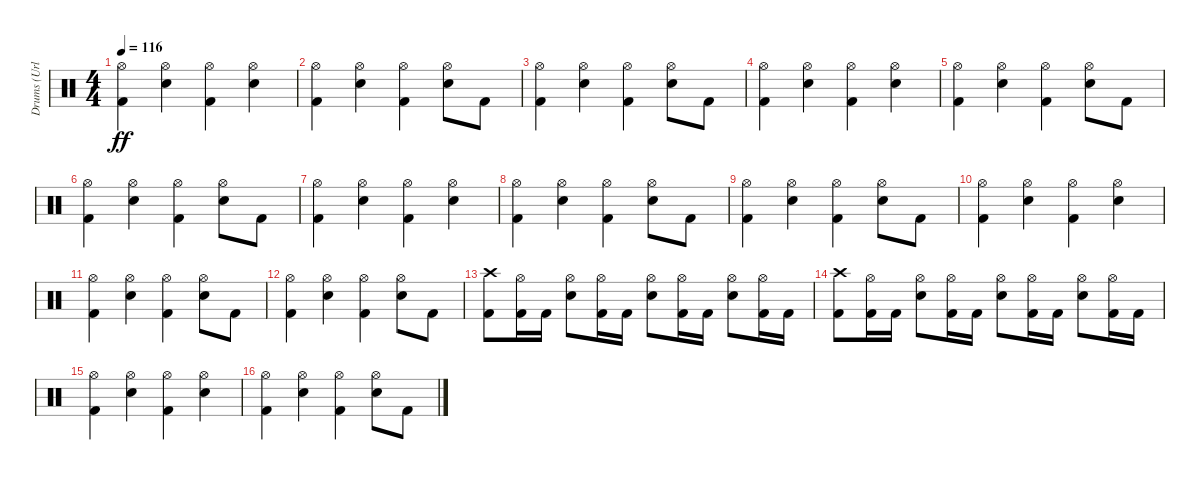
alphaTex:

\track ("Drums (Urlich)" "Drums (Url") {instrument percussion}
\staff {score}
\articulation defaults
\ts (4 4)
\tempo 116
\clef neutral
\ks c
("Kick (hit) 2" "Hi-Hat (open)").4{dy ff} ("Snare (hit) 2" "Hi-Hat (open)").4 ("Kick (hit) 2" "Hi-Hat (open)").4 ("Snare (hit) 2" "Hi-Hat (open)").4 |
("Kick (hit) 2" "Hi-Hat (open)").4 ("Snare (hit) 2" "Hi-Hat (open)").4 ("Kick (hit) 2" "Hi-Hat (open)").4 ("Snare (hit) 2" "Hi-Hat (open)").8 "Kick (hit) 2".8 |
("Kick (hit) 2" "Hi-Hat (open)").4 ("Snare (hit) 2" "Hi-Hat (open)").4 ("Kick (hit) 2" "Hi-Hat (open)").4 ("Snare (hit) 2" "Hi-Hat (open)").8 "Kick (hit) 2".8 |
("Kick (hit) 2" "Hi-Hat (open)").4 ("Snare (hit) 2" "Hi-Hat (open)").4 ("Kick (hit) 2" "Hi-Hat (open)").4 ("Snare (hit) 2" "Hi-Hat (open)").4 |
("Kick (hit) 2" "Hi-Hat (open)").4 ("Snare (hit) 2" "Hi-Hat (open)").4 ("Kick (hit) 2" "Hi-Hat (open)").4 ("Snare (hit) 2" "Hi-Hat (open)").8 "Kick (hit) 2".8 |
("Kick (hit) 2" "Hi-Hat (open)").4 ("Snare (hit) 2" "Hi-Hat (open)").4 ("Kick (hit) 2" "Hi-Hat (open)").4 ("Snare (hit) 2" "Hi-Hat (open)").8 "Kick (hit) 2".8 |
("Kick (hit) 2" "Hi-Hat (open)").4 ("Snare (hit) 2" "Hi-Hat (open)").4 ("Kick (hit) 2" "Hi-Hat (open)").4 ("Snare (hit) 2" "Hi-Hat (open)").4 |
("Kick (hit) 2" "Hi-Hat (open)").4 ("Snare (hit) 2" "Hi-Hat (open)").4 ("Kick (hit) 2" "Hi-Hat (open)").4 ("Snare (hit) 2" "Hi-Hat (open)").8 "Kick (hit) 2".8 |
("Kick (hit) 2" "Hi-Hat (open)").4 ("Snare (hit) 2" "Hi-Hat (open)").4 ("Kick (hit) 2" "Hi-Hat (open)").4 ("Snare (hit) 2" "Hi-Hat (open)").8 "Kick (hit) 2".8 |
("Kick (hit) 2" "Hi-Hat (open)").4 ("Snare (hit) 2" "Hi-Hat (open)").4 ("Kick (hit) 2" "Hi-Hat (open)").4 ("Snare (hit) 2" "Hi-Hat (open)").4 |
("Kick (hit) 2" "Hi-Hat (open)").4 ("Snare (hit) 2" "Hi-Hat (open)").4 ("Kick (hit) 2" "Hi-Hat (open)").4 ("Snare (hit) 2" "Hi-Hat (open)").8 "Kick (hit) 2".8 |
("Kick (hit) 2" "Hi-Hat (open)").4 ("Snare (hit) 2" "Hi-Hat (open)").4 ("Kick (hit) 2" "Hi-Hat (open)").4 ("Snare (hit) 2" "Hi-Hat (open)").8 "Kick (hit) 2".8 |
("Kick (hit) 2" "Crash high (hit)").8 ("Kick (hit) 2" "Hi-Hat (open)").16 "Kick (hit) 2".16 ("Snare (hit) 2" "Hi-Hat (open)").8 ("Kick (hit) 2" "Hi-Hat (open)").16 "Kick (hit) 2".16 ("Snare (hit) 2" "Hi-Hat (open)").8 ("Kick (hit) 2" "Hi-Hat (open)").16 "Kick (hit) 2".16 ("Snare (hit) 2" "Hi-Hat (open)").8 ("Kick (hit) 2" "Hi-Hat (open)").16 "Kick (hit) 2".16 |
("Kick (hit) 2" "Crash high (hit)").8 ("Kick (hit) 2" "Hi-Hat (open)").16 "Kick (hit) 2".16 ("Snare (hit) 2" "Hi-Hat (open)").8 ("Kick (hit) 2" "Hi-Hat (open)").16 "Kick (hit) 2".16 ("Snare (hit) 2" "Hi-Hat (open)").8 ("Kick (hit) 2" "Hi-Hat (open)").16 "Kick (hit) 2".16 ("Snare (hit) 2" "Hi-Hat (open)").8 ("Kick (hit) 2" "Hi-Hat (open)").16 "Kick (hit) 2".16 |
("Kick (hit) 2" "Hi-Hat (open)").4 ("Snare (hit) 2" "Hi-Hat (open)").4 ("Kick (hit) 2" "Hi-Hat (open)").4 ("Snare (hit) 2" "Hi-Hat (open)").4 |
("Kick (hit) 2" "Hi-Hat (open)").4 ("Snare (hit) 2" "Hi-Hat (open)").4 ("Kick (hit) 2" "Hi-Hat (open)").4 ("Snare (hit) 2" "Hi-Hat (open)").8 "Kick (hit) 2".8
